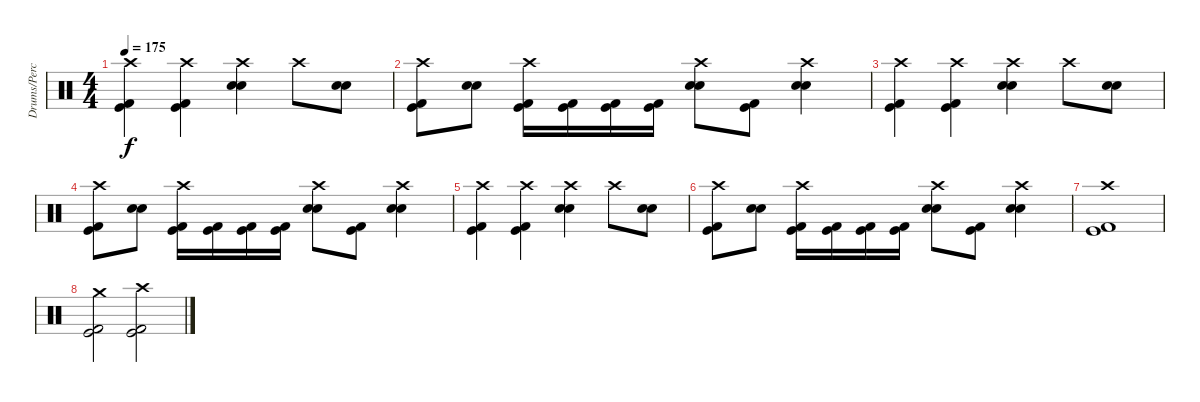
\track ("Drums/Percussion" "Drums/Perc") {instrument percussion}
\staff {score}
\articulation defaults
\ts (4 4)
\tempo 175
\clef neutral
\ks c
("Crash high (hit)" "Kick (hit)" "Kick (hit) 2").4{dy f} ("Crash high (hit)" "Kick (hit)" "Kick (hit) 2").4 ("Crash high (hit)" "Electric Snare (hit)" "Snare (hit) 2").4 "Crash high (hit)".8 ("Electric Snare (hit)" "Snare (hit) 2").8 |
("Crash high (hit)" "Kick (hit)" "Kick (hit) 2").8 ("Electric Snare (hit)" "Snare (hit) 2").8 ("Crash high (hit)" "Kick (hit)" "Kick (hit) 2").16 ("Kick (hit)" "Kick (hit) 2").16 ("Kick (hit)" "Kick (hit) 2").16 ("Kick (hit)" "Kick (hit) 2").16 ("Crash high (hit)" "Electric Snare (hit)" "Snare (hit) 2").8 ("Kick (hit)" "Kick (hit) 2").8 ("Crash high (hit)" "Electric Snare (hit)" "Snare (hit) 2").4 |
("Crash high (hit)" "Kick (hit)" "Kick (hit) 2").4 ("Crash high (hit)" "Kick (hit)" "Kick (hit) 2").4 ("Crash high (hit)" "Electric Snare (hit)" "Snare (hit) 2").4 "Crash high (hit)".8 ("Electric Snare (hit)" "Snare (hit) 2").8 |
("Crash high (hit)" "Kick (hit)" "Kick (hit) 2").8 ("Electric Snare (hit)" "Snare (hit) 2").8 ("Crash high (hit)" "Kick (hit)" "Kick (hit) 2").16 ("Kick (hit)" "Kick (hit) 2").16 ("Kick (hit)" "Kick (hit) 2").16 ("Kick (hit)" "Kick (hit) 2").16 ("Crash high (hit)" "Electric Snare (hit)" "Snare (hit) 2").8 ("Kick (hit)" "Kick (hit) 2").8 ("Crash high (hit)" "Electric Snare (hit)" "Snare (hit) 2").4 |
("Crash high (hit)" "Kick (hit)" "Kick (hit) 2").4 ("Crash high (hit)" "Kick (hit)" "Kick (hit) 2").4 ("Crash high (hit)" "Electric Snare (hit)" "Snare (hit) 2").4 "Crash high (hit)".8 ("Electric Snare (hit)" "Snare (hit) 2").8 |
("Crash high (hit)" "Kick (hit)" "Kick (hit) 2").8 ("Electric Snare (hit)" "Snare (hit) 2").8 ("Crash high (hit)" "Kick (hit)" "Kick (hit) 2").16 ("Kick (hit)" "Kick (hit) 2").16 ("Kick (hit)" "Kick (hit) 2").16 ("Kick (hit)" "Kick (hit) 2").16 ("Crash high (hit)" "Electric Snare (hit)" "Snare (hit) 2").8 ("Kick (hit)" "Kick (hit) 2").8 ("Crash high (hit)" "Electric Snare (hit)" "Snare (hit) 2").4 |
("Crash high (hit)" "Kick (hit)" "Kick (hit) 2").1 |
("Crash medium (hit)" "Kick (hit)" "Kick (hit) 2").2 ("Crash high (hit)" "Kick (hit)" "Kick (hit) 2").2
